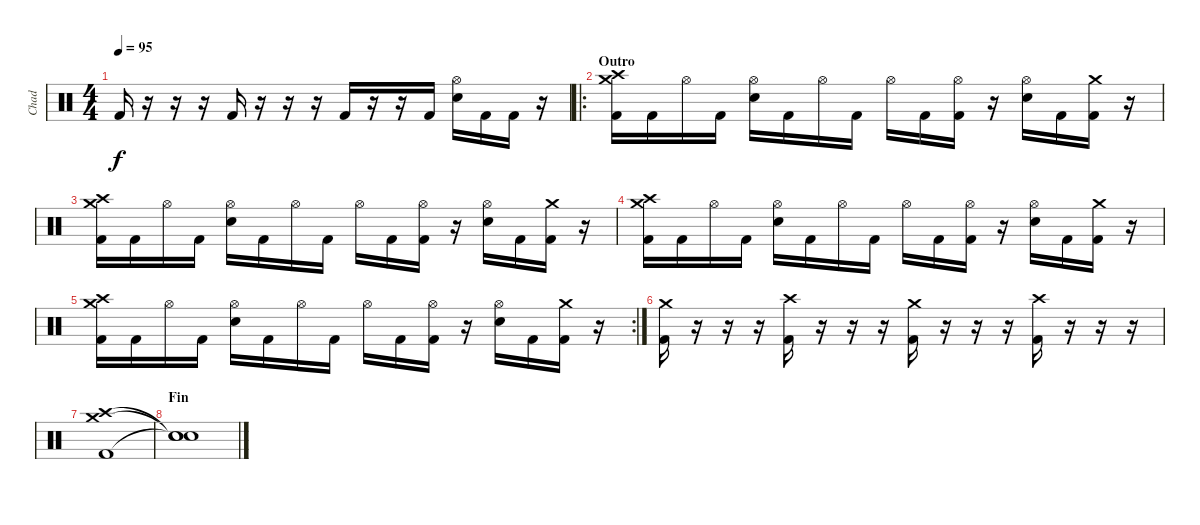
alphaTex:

\track ("Chad" "Chad") {instrument percussion}
\staff {score}
\articulation defaults
\ts (4 4)
\tempo 95
\clef neutral
\ks c "Kick (hit) 2".16{dy f}
r.16 r.16 r.16 "Kick (hit) 2".16 r.16 r.16 r.16 "Kick (hit) 2".16 r.16 r.16 "Kick (hit) 2".16 ("Electric Snare (hit)" "Hi-Hat (open)").16 "Kick (hit) 2".16 "Kick (hit) 2".16 r.16 |
\ro
\section ("" "Outro")
("Kick (hit) 2" "Crash high (hit)" "Crash medium (hit)").16{volume 15} "Kick (hit) 2".16 "Hi-Hat (open)".16 "Kick (hit) 2".16 ("Electric Snare (hit)" "Hi-Hat (open)").16 "Kick (hit) 2".16 "Hi-Hat (open)".16 "Kick (hit) 2".16 "Hi-Hat (open)".16 "Kick (hit) 2".16 ("Kick (hit) 2" "Hi-Hat (open)").16 r.16 ("Electric Snare (hit)" "Hi-Hat (open)").16 "Kick (hit) 2".16 ("Kick (hit) 2" "Crash medium (hit)").16 r.16 |
("Kick (hit) 2" "Crash high (hit)" "Crash medium (hit)").16 "Kick (hit) 2".16 "Hi-Hat (open)".16 "Kick (hit) 2".16 ("Electric Snare (hit)" "Hi-Hat (open)").16 "Kick (hit) 2".16 "Hi-Hat (open)".16 "Kick (hit) 2".16 "Hi-Hat (open)".16 "Kick (hit) 2".16 ("Kick (hit) 2" "Hi-Hat (open)").16 r.16 ("Electric Snare (hit)" "Hi-Hat (open)").16 "Kick (hit) 2".16 ("Kick (hit) 2" "Crash medium (hit)").16 r.16 |
("Kick (hit) 2" "Crash high (hit)" "Crash medium (hit)").16{volume 15} "Kick (hit) 2".16 "Hi-Hat (open)".16 "Kick (hit) 2".16 ("Electric Snare (hit)" "Hi-Hat (open)").16 "Kick (hit) 2".16 "Hi-Hat (open)".16 "Kick (hit) 2".16 "Hi-Hat (open)".16 "Kick (hit) 2".16 ("Kick (hit) 2" "Hi-Hat (open)").16 r.16 ("Electric Snare (hit)" "Hi-Hat (open)").16 "Kick (hit) 2".16 ("Kick (hit) 2" "Crash medium (hit)").16 r.16 |
\rc 2
("Kick (hit) 2" "Crash high (hit)" "Crash medium (hit)").16 "Kick (hit) 2".16 "Hi-Hat (open)".16 "Kick (hit) 2".16 ("Electric Snare (hit)" "Hi-Hat (open)").16 "Kick (hit) 2".16 "Hi-Hat (open)".16 "Kick (hit) 2".16 "Hi-Hat (open)".16 "Kick (hit) 2".16 ("Kick (hit) 2" "Hi-Hat (open)").16 r.16 ("Electric Snare (hit)" "Hi-Hat (open)").16 "Kick (hit) 2".16 ("Kick (hit) 2" "Crash medium (hit)").16 r.16 |
("Kick (hit) 2" "Crash medium (hit)").16 r.16 r.16 r.16 ("Kick (hit) 2" "Crash high (hit)").16 r.16 r.16 r.16 ("Kick (hit) 2" "Crash medium (hit)").16 r.16 r.16 r.16 ("Kick (hit) 2" "Crash high (hit)").16 r.16 r.16 r.16 |
("Kick (hit) 2" "Crash high (hit)" "Crash medium (hit)").1{volume 2} |
\section ("" "Fin")
("Snare (hit)"{t} "Snare (hit)"{t} "Snare (hit)"{t}).1
